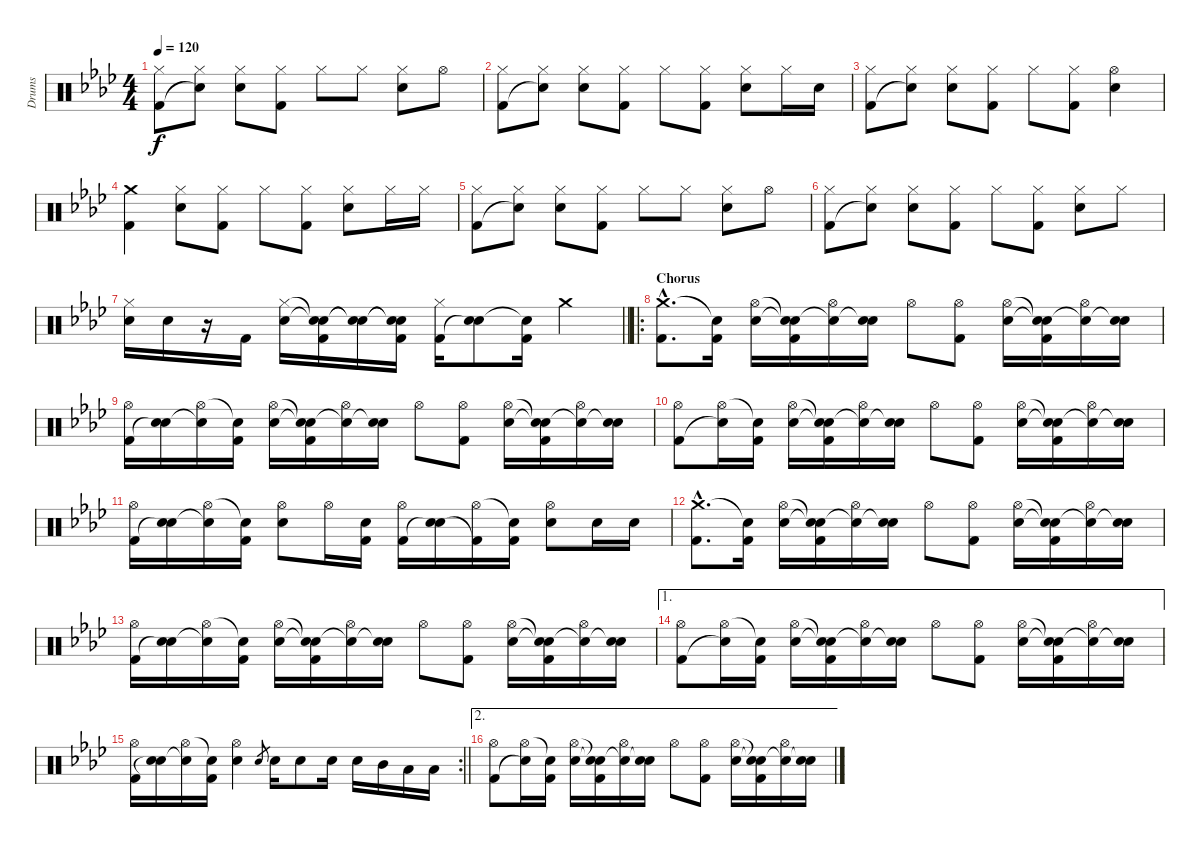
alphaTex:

\track ("Drums" "Drums") {instrument percussion}
\staff {score}
\articulation defaults
\ts (4 4)
\tempo 120
\clef neutral
\ks fminor
("Hi-Hat (closed)" "Kick (hit) 2").8{dy f} ("Hi-Hat (closed)" "Snare (hit)"{t}).8 ("Hi-Hat (closed)" "Electric Snare (hit)").8 ("Hi-Hat (closed)" "Kick (hit) 2").8 "Hi-Hat (closed)".8 "Hi-Hat (closed)".8 ("Hi-Hat (closed)" "Electric Snare (hit)").8 "Hi-Hat (open)".8 |
("Hi-Hat (closed)" "Kick (hit) 2").8 ("Hi-Hat (closed)" "Snare (hit)"{t}).8 ("Hi-Hat (closed)" "Electric Snare (hit)").8 ("Hi-Hat (closed)" "Kick (hit) 2").8 "Hi-Hat (closed)".8 ("Hi-Hat (closed)" "Kick (hit) 2").8 ("Hi-Hat (closed)" "Electric Snare (hit)").8 "Hi-Hat (closed)".16 "Electric Snare (hit)".16 |
("Hi-Hat (closed)" "Kick (hit) 2").8 ("Hi-Hat (closed)" "Snare (hit)"{t}).8 ("Hi-Hat (closed)" "Electric Snare (hit)").8 ("Hi-Hat (closed)" "Kick (hit) 2").8 "Hi-Hat (closed)".8 ("Hi-Hat (closed)" "Kick (hit) 2").8 ("Hi-Hat (open)" "Electric Snare (hit)").4 |
("Crash medium (hit)" "Kick (hit) 2").4 ("Hi-Hat (closed)" "Electric Snare (hit)").8 ("Hi-Hat (closed)" "Kick (hit) 2").8 "Hi-Hat (closed)".8 ("Hi-Hat (closed)" "Kick (hit) 2").8 ("Hi-Hat (closed)" "Electric Snare (hit)").8 "Hi-Hat (closed)".16 "Hi-Hat (closed)".16 |
("Hi-Hat (closed)" "Kick (hit) 2").8 ("Hi-Hat (closed)" "Snare (hit)"{t}).8 ("Hi-Hat (closed)" "Electric Snare (hit)").8 ("Hi-Hat (closed)" "Kick (hit) 2").8 "Hi-Hat (closed)".8 "Hi-Hat (closed)".8 ("Hi-Hat (closed)" "Electric Snare (hit)").8 "Hi-Hat (open)".8 |
("Hi-Hat (closed)" "Kick (hit) 2").8 ("Hi-Hat (closed)" "Snare (hit)"{t}).8 ("Hi-Hat (closed)" "Electric Snare (hit)").8 ("Hi-Hat (closed)" "Kick (hit) 2").8 "Hi-Hat (closed)".8 ("Hi-Hat (closed)" "Kick (hit) 2").8 ("Hi-Hat (closed)" "Electric Snare (hit)").8 "Hi-Hat (closed)".8 |
\barLineRight lightlight
("Hi-Hat (closed)" "Electric Snare (hit)").16 "Electric Snare (hit)".16 r.16 "Kick (hit) 2".16 ("Hi-Hat (closed)" "Electric Snare (hit)").16 ("Snare (hit)"{t} "Snare (hit)"{t} "Kick (hit) 2").16 ("Snare (hit)"{t} "Snare (hit)"{t}).16 ("Snare (hit)"{t} "Snare (hit)"{t} "Kick (hit) 2").16 ("Hi-Hat (closed)" "Kick (hit) 2").16 ("Electric Snare (hit)" "Snare (hit)"{t}).8 ("Snare (hit)"{t} "Kick (hit) 2").16 "Crash medium (hit)".4 |
\ro
\section ("" "Chorus")
("Crash medium (hit)"{hac} "Kick (hit) 2"{hac}).8{d} ("Snare (hit)"{t} "Kick (hit) 2").16 ("Hi-Hat (open)" "Electric Snare (hit)").16 ("Snare (hit)"{t} "Snare (hit)"{t} "Kick (hit) 2").16 ("Hi-Hat (open)" "Snare (hit)"{t}).16 ("Electric Snare (hit)" "Snare (hit)"{t}).16 "Hi-Hat (open)".8 ("Hi-Hat (open)" "Kick (hit) 2").8 ("Hi-Hat (open)" "Electric Snare (hit)").16 ("Snare (hit)"{t} "Snare (hit)"{t} "Kick (hit) 2").16 ("Hi-Hat (open)" "Snare (hit)"{t}).16 ("Electric Snare (hit)" "Snare (hit)"{t}).16 |
("Hi-Hat (open)" "Kick (hit) 2").16 ("Electric Snare (hit)" "Snare (hit)"{t}).16 ("Hi-Hat (open)" "Snare (hit)"{t}).16 ("Snare (hit)"{t} "Kick (hit) 2").16 ("Hi-Hat (open)" "Electric Snare (hit)").16 ("Snare (hit)"{t} "Snare (hit)"{t} "Kick (hit) 2").16 ("Hi-Hat (open)" "Snare (hit)"{t}).16 ("Electric Snare (hit)" "Snare (hit)"{t}).16 "Hi-Hat (open)".8 ("Hi-Hat (open)" "Kick (hit) 2").8 ("Hi-Hat (open)" "Electric Snare (hit)").16 ("Snare (hit)"{t} "Snare (hit)"{t} "Kick (hit) 2").16 ("Hi-Hat (open)" "Snare (hit)"{t}).16 ("Electric Snare (hit)" "Snare (hit)"{t}).16 |
("Hi-Hat (open)" "Kick (hit) 2").8 ("Hi-Hat (open)" "Snare (hit)"{t}).16 ("Snare (hit)"{t} "Kick (hit) 2").16 ("Hi-Hat (open)" "Electric Snare (hit)").16 ("Snare (hit)"{t} "Snare (hit)"{t} "Kick (hit) 2").16 ("Hi-Hat (open)" "Snare (hit)"{t}).16 ("Electric Snare (hit)" "Snare (hit)"{t}).16 "Hi-Hat (open)".8 ("Hi-Hat (open)" "Kick (hit) 2").8 ("Hi-Hat (open)" "Electric Snare (hit)").16 ("Snare (hit)"{t} "Snare (hit)"{t} "Kick (hit) 2").16 ("Hi-Hat (open)" "Snare (hit)"{t}).16 ("Electric Snare (hit)" "Snare (hit)"{t}).16 |
("Hi-Hat (open)" "Kick (hit) 2").16 ("Electric Snare (hit)" "Snare (hit)"{t}).16 ("Hi-Hat (open)" "Snare (hit)"{t}).16 ("Snare (hit)"{t} "Kick (hit) 2").16 ("Hi-Hat (open)" "Electric Snare (hit)").8 "Hi-Hat (open)".16 ("Electric Snare (hit)" "Kick (hit) 2").16 ("Hi-Hat (open)" "Kick (hit) 2").16 ("Electric Snare (hit)" "Snare (hit)"{t}).16 ("Hi-Hat (open)" "Kick (hit) 2"{t}).16 ("Snare (hit)"{t} "Kick (hit) 2").16 ("Hi-Hat (open)" "Electric Snare (hit)").8 "Electric Snare (hit)".16 "Electric Snare (hit)".16 |
("Crash medium (hit)"{hac} "Kick (hit) 2"{hac}).8{d} ("Snare (hit)"{t} "Kick (hit) 2").16 ("Hi-Hat (open)" "Electric Snare (hit)").16 ("Snare (hit)"{t} "Snare (hit)"{t} "Kick (hit) 2").16 ("Hi-Hat (open)" "Snare (hit)"{t}).16 ("Electric Snare (hit)" "Snare (hit)"{t}).16 "Hi-Hat (open)".8 ("Hi-Hat (open)" "Kick (hit) 2").8 ("Hi-Hat (open)" "Electric Snare (hit)").16 ("Snare (hit)"{t} "Snare (hit)"{t} "Kick (hit) 2").16 ("Hi-Hat (open)" "Snare (hit)"{t}).16 ("Electric Snare (hit)" "Snare (hit)"{t}).16 |
("Hi-Hat (open)" "Kick (hit) 2").16 ("Electric Snare (hit)" "Snare (hit)"{t}).16 ("Hi-Hat (open)" "Snare (hit)"{t}).16 ("Snare (hit)"{t} "Kick (hit) 2").16 ("Hi-Hat (open)" "Electric Snare (hit)").16 ("Snare (hit)"{t} "Snare (hit)"{t} "Kick (hit) 2").16 ("Hi-Hat (open)" "Snare (hit)"{t}).16 ("Electric Snare (hit)" "Snare (hit)"{t}).16 "Hi-Hat (open)".8 ("Hi-Hat (open)" "Kick (hit) 2").8 ("Hi-Hat (open)" "Electric Snare (hit)").16 ("Snare (hit)"{t} "Snare (hit)"{t} "Kick (hit) 2").16 ("Hi-Hat (open)" "Snare (hit)"{t}).16 ("Electric Snare (hit)" "Snare (hit)"{t}).16 |
\ae 1
("Hi-Hat (open)" "Kick (hit) 2").8 ("Hi-Hat (open)" "Snare (hit)"{t}).16 ("Snare (hit)"{t} "Kick (hit) 2").16 ("Hi-Hat (open)" "Electric Snare (hit)").16 ("Snare (hit)"{t} "Snare (hit)"{t} "Kick (hit) 2").16 ("Hi-Hat (open)" "Snare (hit)"{t}).16 ("Electric Snare (hit)" "Snare (hit)"{t}).16 "Hi-Hat (open)".8 ("Hi-Hat (open)" "Kick (hit) 2").8 ("Hi-Hat (open)" "Electric Snare (hit)").16 ("Snare (hit)"{t} "Snare (hit)"{t} "Kick (hit) 2").16 ("Hi-Hat (open)" "Snare (hit)"{t}).16 ("Electric Snare (hit)" "Snare (hit)"{t}).16 |
\rc 2
\barLineRight lightlight
("Hi-Hat (open)" "Kick (hit) 2").16 ("Electric Snare (hit)" "Snare (hit)"{t}).16 ("Hi-Hat (open)" "Snare (hit)"{t}).16 ("Snare (hit)"{t} "Kick (hit) 2").16 ("Hi-Hat (open)" "Electric Snare (hit)").4 "Electric Snare (hit)".8{gr} "Electric Snare (hit)".16 "Electric Snare (hit)".8 "Electric Snare (hit)".16 "Electric Snare (hit)".16 "Mid Tom (hit)".16 "Low Tom (hit)".16 "Low Floor Tom (hit)".16 |
\ae 2
("Hi-Hat (open)" "Kick (hit) 2").8 ("Hi-Hat (open)" "Snare (hit)"{t}).16 ("Snare (hit)"{t} "Kick (hit) 2").16 ("Hi-Hat (open)" "Electric Snare (hit)").16 ("Snare (hit)"{t} "Snare (hit)"{t} "Kick (hit) 2").16 ("Hi-Hat (open)" "Snare (hit)"{t}).16 ("Electric Snare (hit)" "Snare (hit)"{t}).16 "Hi-Hat (open)".8 ("Hi-Hat (open)" "Kick (hit) 2").8 ("Hi-Hat (open)" "Electric Snare (hit)").16 ("Snare (hit)"{t} "Snare (hit)"{t} "Kick (hit) 2").16 ("Hi-Hat (open)" "Snare (hit)"{t}).16 ("Electric Snare (hit)" "Snare (hit)"{t}).16
